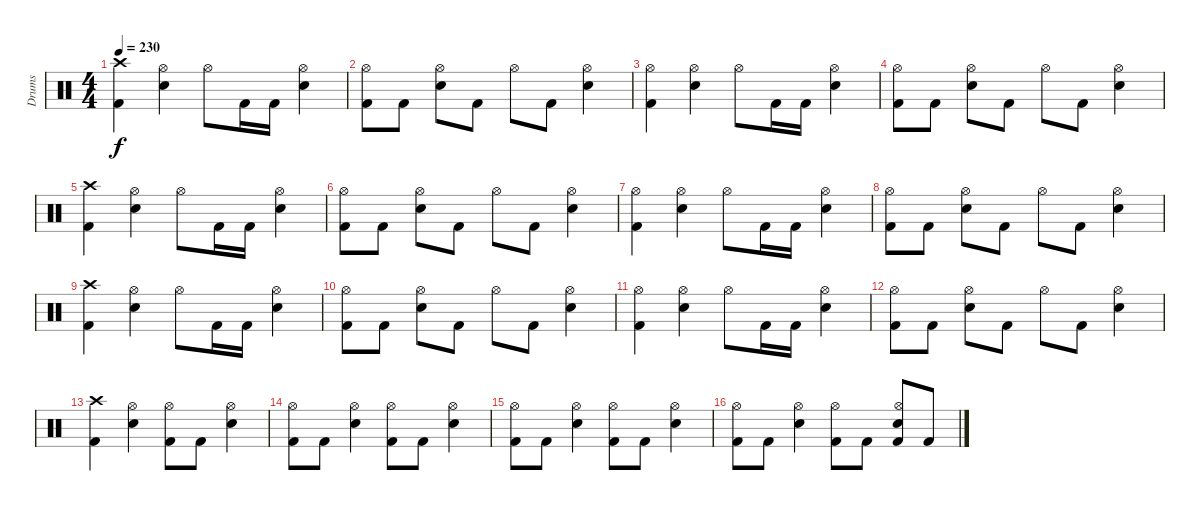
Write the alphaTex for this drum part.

\track ("Drums" "Drums") {instrument percussion}
\staff {score}
\articulation defaults
\ts (4 4)
\tempo 230
\clef neutral
\ks c
("Crash high (hit)" "Kick (hit) 2").4{dy f} ("Hi-Hat (open)" "Electric Snare (hit)").4 "Hi-Hat (open)".8 "Kick (hit) 2".16 "Kick (hit) 2".16 ("Hi-Hat (open)" "Electric Snare (hit)").4 |
("Hi-Hat (open)" "Kick (hit) 2").8 "Kick (hit) 2".8 ("Hi-Hat (open)" "Electric Snare (hit)").8 "Kick (hit) 2".8 "Hi-Hat (open)".8 "Kick (hit) 2".8 ("Hi-Hat (open)" "Electric Snare (hit)").4 |
("Hi-Hat (open)" "Kick (hit) 2").4 ("Hi-Hat (open)" "Electric Snare (hit)").4 "Hi-Hat (open)".8 "Kick (hit) 2".16 "Kick (hit) 2".16 ("Hi-Hat (open)" "Electric Snare (hit)").4 |
("Hi-Hat (open)" "Kick (hit) 2").8 "Kick (hit) 2".8 ("Hi-Hat (open)" "Electric Snare (hit)").8 "Kick (hit) 2".8 "Hi-Hat (open)".8 "Kick (hit) 2".8 ("Hi-Hat (open)" "Electric Snare (hit)").4 |
("Crash high (hit)" "Kick (hit) 2").4 ("Hi-Hat (open)" "Electric Snare (hit)").4 "Hi-Hat (open)".8 "Kick (hit) 2".16 "Kick (hit) 2".16 ("Hi-Hat (open)" "Electric Snare (hit)").4 |
("Hi-Hat (open)" "Kick (hit) 2").8 "Kick (hit) 2".8 ("Hi-Hat (open)" "Electric Snare (hit)").8 "Kick (hit) 2".8 "Hi-Hat (open)".8 "Kick (hit) 2".8 ("Hi-Hat (open)" "Electric Snare (hit)").4 |
("Hi-Hat (open)" "Kick (hit) 2").4 ("Hi-Hat (open)" "Electric Snare (hit)").4 "Hi-Hat (open)".8 "Kick (hit) 2".16 "Kick (hit) 2".16 ("Hi-Hat (open)" "Electric Snare (hit)").4 |
("Hi-Hat (open)" "Kick (hit) 2").8 "Kick (hit) 2".8 ("Hi-Hat (open)" "Electric Snare (hit)").8 "Kick (hit) 2".8 "Hi-Hat (open)".8 "Kick (hit) 2".8 ("Hi-Hat (open)" "Electric Snare (hit)").4 |
("Crash high (hit)" "Kick (hit) 2").4 ("Hi-Hat (open)" "Electric Snare (hit)").4 "Hi-Hat (open)".8 "Kick (hit) 2".16 "Kick (hit) 2".16 ("Hi-Hat (open)" "Electric Snare (hit)").4 |
("Hi-Hat (open)" "Kick (hit) 2").8 "Kick (hit) 2".8 ("Hi-Hat (open)" "Electric Snare (hit)").8 "Kick (hit) 2".8 "Hi-Hat (open)".8 "Kick (hit) 2".8 ("Hi-Hat (open)" "Electric Snare (hit)").4 |
("Hi-Hat (open)" "Kick (hit) 2").4 ("Hi-Hat (open)" "Electric Snare (hit)").4 "Hi-Hat (open)".8 "Kick (hit) 2".16 "Kick (hit) 2".16 ("Hi-Hat (open)" "Electric Snare (hit)").4 |
("Hi-Hat (open)" "Kick (hit) 2").8 "Kick (hit) 2".8 ("Hi-Hat (open)" "Electric Snare (hit)").8 "Kick (hit) 2".8 "Hi-Hat (open)".8 "Kick (hit) 2".8 ("Hi-Hat (open)" "Electric Snare (hit)").4 |
("Crash high (hit)" "Kick (hit) 2").4 ("Hi-Hat (open)" "Electric Snare (hit)").4 ("Hi-Hat (open)" "Kick (hit) 2").8 "Kick (hit) 2".8 ("Hi-Hat (open)" "Electric Snare (hit)").4 |
("Hi-Hat (open)" "Kick (hit) 2").8 "Kick (hit) 2".8 ("Hi-Hat (open)" "Electric Snare (hit)").4 ("Hi-Hat (open)" "Kick (hit) 2").8 "Kick (hit) 2".8 ("Hi-Hat (open)" "Electric Snare (hit)").4 |
("Hi-Hat (open)" "Kick (hit) 2").8 "Kick (hit) 2".8 ("Hi-Hat (open)" "Electric Snare (hit)").4 ("Hi-Hat (open)" "Kick (hit) 2").8 "Kick (hit) 2".8 ("Hi-Hat (open)" "Electric Snare (hit)").4 |
("Hi-Hat (open)" "Kick (hit) 2").8 "Kick (hit) 2".8 ("Hi-Hat (open)" "Electric Snare (hit)").4 ("Hi-Hat (open)" "Kick (hit) 2").8 "Kick (hit) 2".8 ("Hi-Hat (open)" "Electric Snare (hit)" "Kick (hit) 2").8 "Kick (hit) 2".8
